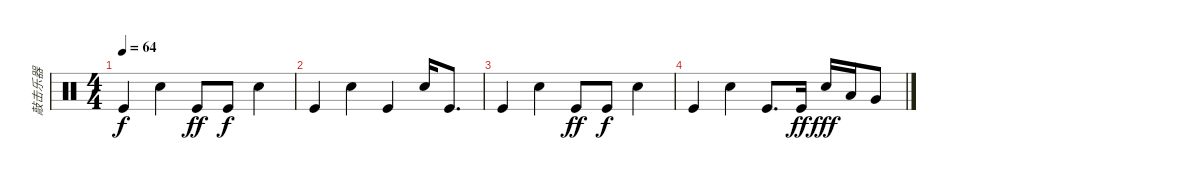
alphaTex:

\track ("敲击乐器" "敲击乐器") {instrument percussion}
\staff {score}
\articulation defaults
\ts (4 4)
\tempo 64
\clef neutral
\ks c "Kick (hit)".4{dy f} "Snare (hit) 2".4 "Kick (hit)".8{dy ff} "Kick (hit)".8{dy f} "Snare (hit) 2".4
|
"Kick (hit)".4 "Snare (hit) 2".4 "Kick (hit)".4 "Snare (hit) 2".16 "Kick (hit)".8{d} |
"Kick (hit)".4 "Snare (hit) 2".4 "Kick (hit)".8{dy ff} "Kick (hit)".8{dy f} "Snare (hit) 2".4 |
"Kick (hit)".4 "Snare (hit) 2".4 "Kick (hit)".8{d} "Kick (hit)".16{dy ff} "Snare (hit) 2".16{dy fff} "Low Tom (hit)".16 "Very Low Tom (hit)".8
